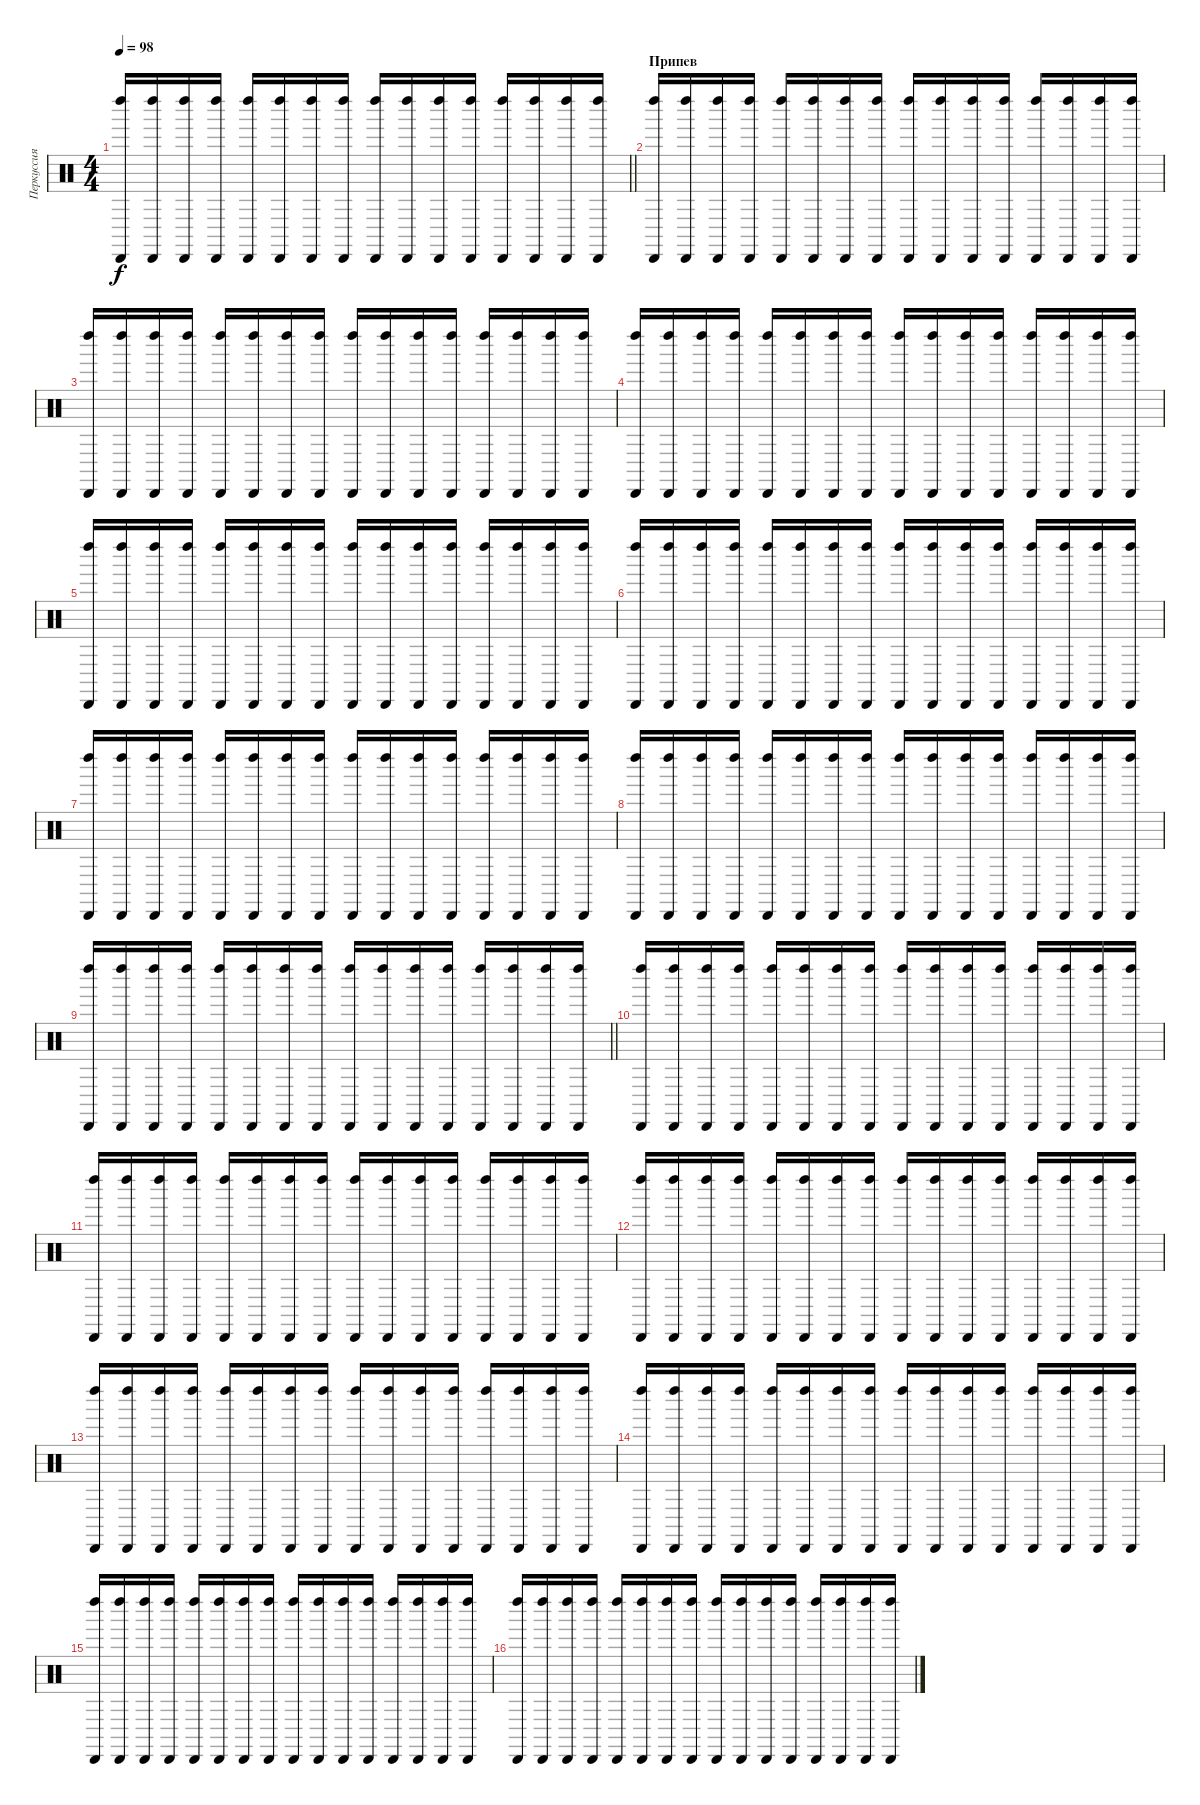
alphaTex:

\track ("Перкуссия" "Перкуссия") {instrument percussion}
\staff {score}
\articulation defaults
\ts (4 4)
\tempo 98
\clef neutral
\barLineRight lightlight
\ks c
("Cabasa (hit)" "Left Maraca (hit)").16{dy f} ("Cabasa (hit)" "Left Maraca (hit)").16 ("Cabasa (hit)" "Left Maraca (hit)").16 ("Cabasa (hit)" "Left Maraca (hit)").16 ("Cabasa (hit)" "Left Maraca (hit)").16 ("Cabasa (hit)" "Left Maraca (hit)").16 ("Cabasa (hit)" "Left Maraca (hit)").16 ("Cabasa (hit)" "Left Maraca (hit)").16 ("Cabasa (hit)" "Left Maraca (hit)").16 ("Cabasa (hit)" "Left Maraca (hit)").16 ("Cabasa (hit)" "Left Maraca (hit)").16 ("Cabasa (hit)" "Left Maraca (hit)").16 ("Cabasa (hit)" "Left Maraca (hit)").16 ("Cabasa (hit)" "Left Maraca (hit)").16 ("Cabasa (hit)" "Left Maraca (hit)").16 ("Cabasa (hit)" "Left Maraca (hit)").16 |
\section ("" "Припев")
("Cabasa (hit)" "Left Maraca (hit)").16 ("Cabasa (hit)" "Left Maraca (hit)").16 ("Cabasa (hit)" "Left Maraca (hit)").16 ("Cabasa (hit)" "Left Maraca (hit)").16 ("Cabasa (hit)" "Left Maraca (hit)").16 ("Cabasa (hit)" "Left Maraca (hit)").16 ("Cabasa (hit)" "Left Maraca (hit)").16 ("Cabasa (hit)" "Left Maraca (hit)").16 ("Cabasa (hit)" "Left Maraca (hit)").16 ("Cabasa (hit)" "Left Maraca (hit)").16 ("Cabasa (hit)" "Left Maraca (hit)").16 ("Cabasa (hit)" "Left Maraca (hit)").16 ("Cabasa (hit)" "Left Maraca (hit)").16 ("Cabasa (hit)" "Left Maraca (hit)").16 ("Cabasa (hit)" "Left Maraca (hit)").16 ("Cabasa (hit)" "Left Maraca (hit)").16 |
("Cabasa (hit)" "Left Maraca (hit)").16 ("Cabasa (hit)" "Left Maraca (hit)").16 ("Cabasa (hit)" "Left Maraca (hit)").16 ("Cabasa (hit)" "Left Maraca (hit)").16 ("Cabasa (hit)" "Left Maraca (hit)").16 ("Cabasa (hit)" "Left Maraca (hit)").16 ("Cabasa (hit)" "Left Maraca (hit)").16 ("Cabasa (hit)" "Left Maraca (hit)").16 ("Cabasa (hit)" "Left Maraca (hit)").16 ("Cabasa (hit)" "Left Maraca (hit)").16 ("Cabasa (hit)" "Left Maraca (hit)").16 ("Cabasa (hit)" "Left Maraca (hit)").16 ("Cabasa (hit)" "Left Maraca (hit)").16 ("Cabasa (hit)" "Left Maraca (hit)").16 ("Cabasa (hit)" "Left Maraca (hit)").16 ("Cabasa (hit)" "Left Maraca (hit)").16 |
("Cabasa (hit)" "Left Maraca (hit)").16 ("Cabasa (hit)" "Left Maraca (hit)").16 ("Cabasa (hit)" "Left Maraca (hit)").16 ("Cabasa (hit)" "Left Maraca (hit)").16 ("Cabasa (hit)" "Left Maraca (hit)").16 ("Cabasa (hit)" "Left Maraca (hit)").16 ("Cabasa (hit)" "Left Maraca (hit)").16 ("Cabasa (hit)" "Left Maraca (hit)").16 ("Cabasa (hit)" "Left Maraca (hit)").16 ("Cabasa (hit)" "Left Maraca (hit)").16 ("Cabasa (hit)" "Left Maraca (hit)").16 ("Cabasa (hit)" "Left Maraca (hit)").16 ("Cabasa (hit)" "Left Maraca (hit)").16 ("Cabasa (hit)" "Left Maraca (hit)").16 ("Cabasa (hit)" "Left Maraca (hit)").16 ("Cabasa (hit)" "Left Maraca (hit)").16 |
("Cabasa (hit)" "Left Maraca (hit)").16 ("Cabasa (hit)" "Left Maraca (hit)").16 ("Cabasa (hit)" "Left Maraca (hit)").16 ("Cabasa (hit)" "Left Maraca (hit)").16 ("Cabasa (hit)" "Left Maraca (hit)").16 ("Cabasa (hit)" "Left Maraca (hit)").16 ("Cabasa (hit)" "Left Maraca (hit)").16 ("Cabasa (hit)" "Left Maraca (hit)").16 ("Cabasa (hit)" "Left Maraca (hit)").16 ("Cabasa (hit)" "Left Maraca (hit)").16 ("Cabasa (hit)" "Left Maraca (hit)").16 ("Cabasa (hit)" "Left Maraca (hit)").16 ("Cabasa (hit)" "Left Maraca (hit)").16 ("Cabasa (hit)" "Left Maraca (hit)").16 ("Cabasa (hit)" "Left Maraca (hit)").16 ("Cabasa (hit)" "Left Maraca (hit)").16 |
("Cabasa (hit)" "Left Maraca (hit)").16 ("Cabasa (hit)" "Left Maraca (hit)").16 ("Cabasa (hit)" "Left Maraca (hit)").16 ("Cabasa (hit)" "Left Maraca (hit)").16 ("Cabasa (hit)" "Left Maraca (hit)").16 ("Cabasa (hit)" "Left Maraca (hit)").16 ("Cabasa (hit)" "Left Maraca (hit)").16 ("Cabasa (hit)" "Left Maraca (hit)").16 ("Cabasa (hit)" "Left Maraca (hit)").16 ("Cabasa (hit)" "Left Maraca (hit)").16 ("Cabasa (hit)" "Left Maraca (hit)").16 ("Cabasa (hit)" "Left Maraca (hit)").16 ("Cabasa (hit)" "Left Maraca (hit)").16 ("Cabasa (hit)" "Left Maraca (hit)").16 ("Cabasa (hit)" "Left Maraca (hit)").16 ("Cabasa (hit)" "Left Maraca (hit)").16 |
("Cabasa (hit)" "Left Maraca (hit)").16 ("Cabasa (hit)" "Left Maraca (hit)").16 ("Cabasa (hit)" "Left Maraca (hit)").16 ("Cabasa (hit)" "Left Maraca (hit)").16 ("Cabasa (hit)" "Left Maraca (hit)").16 ("Cabasa (hit)" "Left Maraca (hit)").16 ("Cabasa (hit)" "Left Maraca (hit)").16 ("Cabasa (hit)" "Left Maraca (hit)").16 ("Cabasa (hit)" "Left Maraca (hit)").16 ("Cabasa (hit)" "Left Maraca (hit)").16 ("Cabasa (hit)" "Left Maraca (hit)").16 ("Cabasa (hit)" "Left Maraca (hit)").16 ("Cabasa (hit)" "Left Maraca (hit)").16 ("Cabasa (hit)" "Left Maraca (hit)").16 ("Cabasa (hit)" "Left Maraca (hit)").16 ("Cabasa (hit)" "Left Maraca (hit)").16 |
("Cabasa (hit)" "Left Maraca (hit)").16 ("Cabasa (hit)" "Left Maraca (hit)").16 ("Cabasa (hit)" "Left Maraca (hit)").16 ("Cabasa (hit)" "Left Maraca (hit)").16 ("Cabasa (hit)" "Left Maraca (hit)").16 ("Cabasa (hit)" "Left Maraca (hit)").16 ("Cabasa (hit)" "Left Maraca (hit)").16 ("Cabasa (hit)" "Left Maraca (hit)").16 ("Cabasa (hit)" "Left Maraca (hit)").16 ("Cabasa (hit)" "Left Maraca (hit)").16 ("Cabasa (hit)" "Left Maraca (hit)").16 ("Cabasa (hit)" "Left Maraca (hit)").16 ("Cabasa (hit)" "Left Maraca (hit)").16 ("Cabasa (hit)" "Left Maraca (hit)").16 ("Cabasa (hit)" "Left Maraca (hit)").16 ("Cabasa (hit)" "Left Maraca (hit)").16 |
\barLineRight lightlight
("Cabasa (hit)" "Left Maraca (hit)").16 ("Cabasa (hit)" "Left Maraca (hit)").16 ("Cabasa (hit)" "Left Maraca (hit)").16 ("Cabasa (hit)" "Left Maraca (hit)").16 ("Cabasa (hit)" "Left Maraca (hit)").16 ("Cabasa (hit)" "Left Maraca (hit)").16 ("Cabasa (hit)" "Left Maraca (hit)").16 ("Cabasa (hit)" "Left Maraca (hit)").16 ("Cabasa (hit)" "Left Maraca (hit)").16 ("Cabasa (hit)" "Left Maraca (hit)").16 ("Cabasa (hit)" "Left Maraca (hit)").16 ("Cabasa (hit)" "Left Maraca (hit)").16 ("Cabasa (hit)" "Left Maraca (hit)").16 ("Cabasa (hit)" "Left Maraca (hit)").16 ("Cabasa (hit)" "Left Maraca (hit)").16 ("Cabasa (hit)" "Left Maraca (hit)").16 |
("Cabasa (hit)" "Left Maraca (hit)").16 ("Cabasa (hit)" "Left Maraca (hit)").16 ("Cabasa (hit)" "Left Maraca (hit)").16 ("Cabasa (hit)" "Left Maraca (hit)").16 ("Cabasa (hit)" "Left Maraca (hit)").16 ("Cabasa (hit)" "Left Maraca (hit)").16 ("Cabasa (hit)" "Left Maraca (hit)").16 ("Cabasa (hit)" "Left Maraca (hit)").16 ("Cabasa (hit)" "Left Maraca (hit)").16 ("Cabasa (hit)" "Left Maraca (hit)").16 ("Cabasa (hit)" "Left Maraca (hit)").16 ("Cabasa (hit)" "Left Maraca (hit)").16 ("Cabasa (hit)" "Left Maraca (hit)").16 ("Cabasa (hit)" "Left Maraca (hit)").16 ("Cabasa (hit)" "Left Maraca (hit)").16 ("Cabasa (hit)" "Left Maraca (hit)").16 |
("Cabasa (hit)" "Left Maraca (hit)").16 ("Cabasa (hit)" "Left Maraca (hit)").16 ("Cabasa (hit)" "Left Maraca (hit)").16 ("Cabasa (hit)" "Left Maraca (hit)").16 ("Cabasa (hit)" "Left Maraca (hit)").16 ("Cabasa (hit)" "Left Maraca (hit)").16 ("Cabasa (hit)" "Left Maraca (hit)").16 ("Cabasa (hit)" "Left Maraca (hit)").16 ("Cabasa (hit)" "Left Maraca (hit)").16 ("Cabasa (hit)" "Left Maraca (hit)").16 ("Cabasa (hit)" "Left Maraca (hit)").16 ("Cabasa (hit)" "Left Maraca (hit)").16 ("Cabasa (hit)" "Left Maraca (hit)").16 ("Cabasa (hit)" "Left Maraca (hit)").16 ("Cabasa (hit)" "Left Maraca (hit)").16 ("Cabasa (hit)" "Left Maraca (hit)").16 |
("Cabasa (hit)" "Left Maraca (hit)").16 ("Cabasa (hit)" "Left Maraca (hit)").16 ("Cabasa (hit)" "Left Maraca (hit)").16 ("Cabasa (hit)" "Left Maraca (hit)").16 ("Cabasa (hit)" "Left Maraca (hit)").16 ("Cabasa (hit)" "Left Maraca (hit)").16 ("Cabasa (hit)" "Left Maraca (hit)").16 ("Cabasa (hit)" "Left Maraca (hit)").16 ("Cabasa (hit)" "Left Maraca (hit)").16 ("Cabasa (hit)" "Left Maraca (hit)").16 ("Cabasa (hit)" "Left Maraca (hit)").16 ("Cabasa (hit)" "Left Maraca (hit)").16 ("Cabasa (hit)" "Left Maraca (hit)").16 ("Cabasa (hit)" "Left Maraca (hit)").16 ("Cabasa (hit)" "Left Maraca (hit)").16 ("Cabasa (hit)" "Left Maraca (hit)").16 |
("Cabasa (hit)" "Left Maraca (hit)").16 ("Cabasa (hit)" "Left Maraca (hit)").16 ("Cabasa (hit)" "Left Maraca (hit)").16 ("Cabasa (hit)" "Left Maraca (hit)").16 ("Cabasa (hit)" "Left Maraca (hit)").16 ("Cabasa (hit)" "Left Maraca (hit)").16 ("Cabasa (hit)" "Left Maraca (hit)").16 ("Cabasa (hit)" "Left Maraca (hit)").16 ("Cabasa (hit)" "Left Maraca (hit)").16 ("Cabasa (hit)" "Left Maraca (hit)").16 ("Cabasa (hit)" "Left Maraca (hit)").16 ("Cabasa (hit)" "Left Maraca (hit)").16 ("Cabasa (hit)" "Left Maraca (hit)").16 ("Cabasa (hit)" "Left Maraca (hit)").16 ("Cabasa (hit)" "Left Maraca (hit)").16 ("Cabasa (hit)" "Left Maraca (hit)").16 |
("Cabasa (hit)" "Left Maraca (hit)").16 ("Cabasa (hit)" "Left Maraca (hit)").16 ("Cabasa (hit)" "Left Maraca (hit)").16 ("Cabasa (hit)" "Left Maraca (hit)").16 ("Cabasa (hit)" "Left Maraca (hit)").16 ("Cabasa (hit)" "Left Maraca (hit)").16 ("Cabasa (hit)" "Left Maraca (hit)").16 ("Cabasa (hit)" "Left Maraca (hit)").16 ("Cabasa (hit)" "Left Maraca (hit)").16 ("Cabasa (hit)" "Left Maraca (hit)").16 ("Cabasa (hit)" "Left Maraca (hit)").16 ("Cabasa (hit)" "Left Maraca (hit)").16 ("Cabasa (hit)" "Left Maraca (hit)").16 ("Cabasa (hit)" "Left Maraca (hit)").16 ("Cabasa (hit)" "Left Maraca (hit)").16 ("Cabasa (hit)" "Left Maraca (hit)").16 |
("Cabasa (hit)" "Left Maraca (hit)").16 ("Cabasa (hit)" "Left Maraca (hit)").16 ("Cabasa (hit)" "Left Maraca (hit)").16 ("Cabasa (hit)" "Left Maraca (hit)").16 ("Cabasa (hit)" "Left Maraca (hit)").16 ("Cabasa (hit)" "Left Maraca (hit)").16 ("Cabasa (hit)" "Left Maraca (hit)").16 ("Cabasa (hit)" "Left Maraca (hit)").16 ("Cabasa (hit)" "Left Maraca (hit)").16 ("Cabasa (hit)" "Left Maraca (hit)").16 ("Cabasa (hit)" "Left Maraca (hit)").16 ("Cabasa (hit)" "Left Maraca (hit)").16 ("Cabasa (hit)" "Left Maraca (hit)").16 ("Cabasa (hit)" "Left Maraca (hit)").16 ("Cabasa (hit)" "Left Maraca (hit)").16 ("Cabasa (hit)" "Left Maraca (hit)").16 |
("Cabasa (hit)" "Left Maraca (hit)").16 ("Cabasa (hit)" "Left Maraca (hit)").16 ("Cabasa (hit)" "Left Maraca (hit)").16 ("Cabasa (hit)" "Left Maraca (hit)").16 ("Cabasa (hit)" "Left Maraca (hit)").16 ("Cabasa (hit)" "Left Maraca (hit)").16 ("Cabasa (hit)" "Left Maraca (hit)").16 ("Cabasa (hit)" "Left Maraca (hit)").16 ("Cabasa (hit)" "Left Maraca (hit)").16 ("Cabasa (hit)" "Left Maraca (hit)").16 ("Cabasa (hit)" "Left Maraca (hit)").16 ("Cabasa (hit)" "Left Maraca (hit)").16 ("Cabasa (hit)" "Left Maraca (hit)").16 ("Cabasa (hit)" "Left Maraca (hit)").16 ("Cabasa (hit)" "Left Maraca (hit)").16 ("Cabasa (hit)" "Left Maraca (hit)").16
